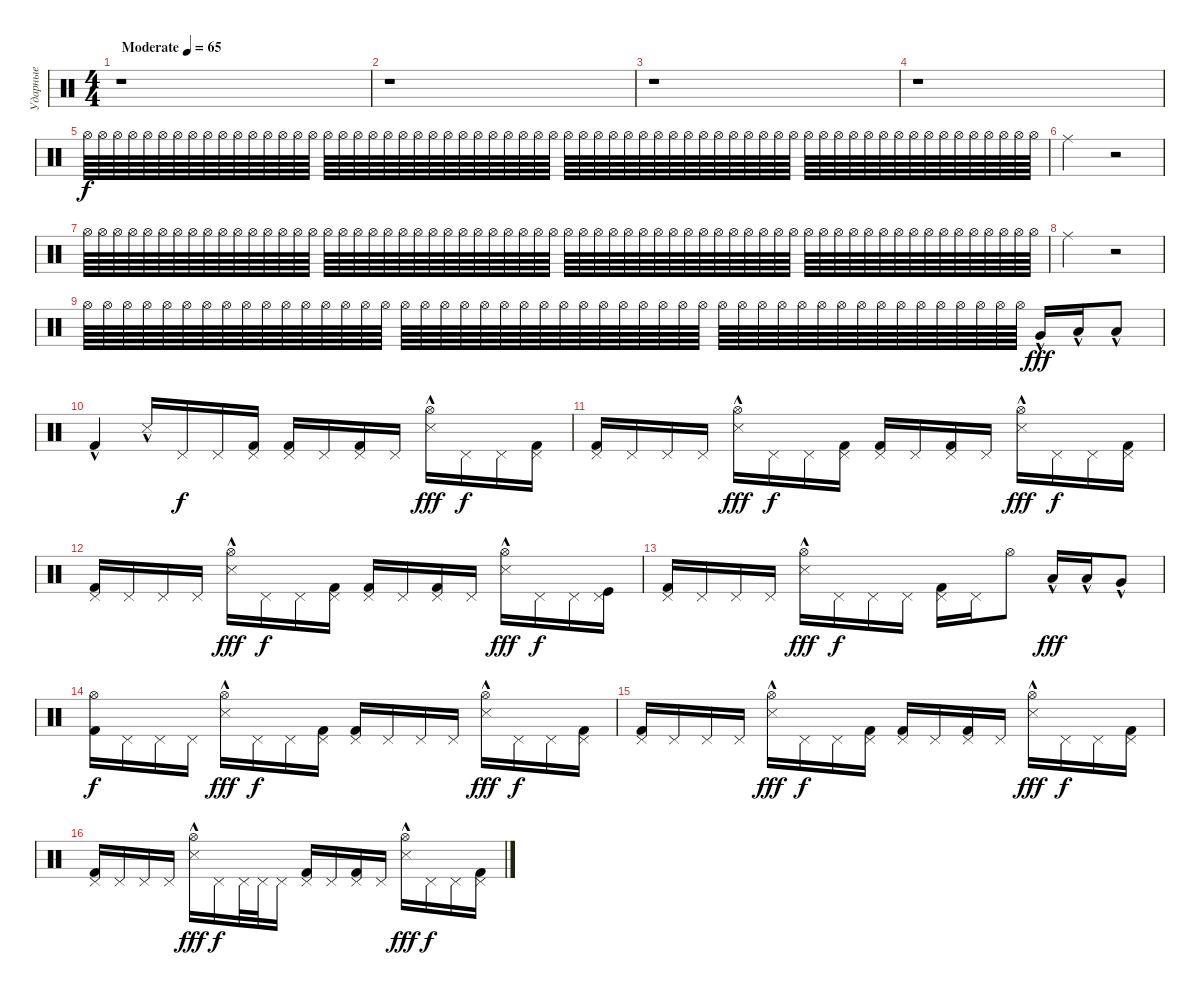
\track ("Ударные" "Ударные") {instrument percussion}
\staff {score}
\articulation defaults
\ts (4 4)
\tempo (65 "Moderate")
\clef neutral
\ks c
r.1{dy f volume 4} |
r.1 |
r.1 |
r.1 |
"Hi-Hat (open)".64{volume 10} "Hi-Hat (open)".64 "Hi-Hat (open)".64 "Hi-Hat (open)".64 "Hi-Hat (open)".64 "Hi-Hat (open)".64 "Hi-Hat (open)".64 "Hi-Hat (open)".64 "Hi-Hat (open)".64 "Hi-Hat (open)".64 "Hi-Hat (open)".64 "Hi-Hat (open)".64 "Hi-Hat (open)".64 "Hi-Hat (open)".64 "Hi-Hat (open)".64 "Hi-Hat (open)".64 "Hi-Hat (open)".64 "Hi-Hat (open)".64 "Hi-Hat (open)".64 "Hi-Hat (open)".64 "Hi-Hat (open)".64 "Hi-Hat (open)".64 "Hi-Hat (open)".64 "Hi-Hat (open)".64 "Hi-Hat (open)".64 "Hi-Hat (open)".64 "Hi-Hat (open)".64 "Hi-Hat (open)".64 "Hi-Hat (open)".64 "Hi-Hat (open)".64 "Hi-Hat (open)".64 "Hi-Hat (open)".64 "Hi-Hat (open)".64{volume 5} "Hi-Hat (open)".64 "Hi-Hat (open)".64 "Hi-Hat (open)".64 "Hi-Hat (open)".64 "Hi-Hat (open)".64 "Hi-Hat (open)".64 "Hi-Hat (open)".64 "Hi-Hat (open)".64 "Hi-Hat (open)".64 "Hi-Hat (open)".64 "Hi-Hat (open)".64 "Hi-Hat (open)".64 "Hi-Hat (open)".64 "Hi-Hat (open)".64 "Hi-Hat (open)".64 "Hi-Hat (open)".64 "Hi-Hat (open)".64 "Hi-Hat (open)".64 "Hi-Hat (open)".64 "Hi-Hat (open)".64 "Hi-Hat (open)".64 "Hi-Hat (open)".64 "Hi-Hat (open)".64 "Hi-Hat (open)".64 "Hi-Hat (open)".64 "Hi-Hat (open)".64 "Hi-Hat (open)".64 "Hi-Hat (open)".64 "Hi-Hat (open)".64 "Hi-Hat (open)".64 "Hi-Hat (open)".64 |
"Ride (middle)".2{volume 11} r.2{volume 0} |
"Hi-Hat (open)".64{volume 10} "Hi-Hat (open)".64 "Hi-Hat (open)".64 "Hi-Hat (open)".64 "Hi-Hat (open)".64 "Hi-Hat (open)".64 "Hi-Hat (open)".64 "Hi-Hat (open)".64 "Hi-Hat (open)".64 "Hi-Hat (open)".64 "Hi-Hat (open)".64 "Hi-Hat (open)".64 "Hi-Hat (open)".64 "Hi-Hat (open)".64 "Hi-Hat (open)".64 "Hi-Hat (open)".64 "Hi-Hat (open)".64 "Hi-Hat (open)".64 "Hi-Hat (open)".64 "Hi-Hat (open)".64 "Hi-Hat (open)".64 "Hi-Hat (open)".64 "Hi-Hat (open)".64 "Hi-Hat (open)".64 "Hi-Hat (open)".64 "Hi-Hat (open)".64 "Hi-Hat (open)".64 "Hi-Hat (open)".64 "Hi-Hat (open)".64 "Hi-Hat (open)".64 "Hi-Hat (open)".64 "Hi-Hat (open)".64 "Hi-Hat (open)".64{volume 5} "Hi-Hat (open)".64 "Hi-Hat (open)".64 "Hi-Hat (open)".64 "Hi-Hat (open)".64 "Hi-Hat (open)".64 "Hi-Hat (open)".64 "Hi-Hat (open)".64 "Hi-Hat (open)".64 "Hi-Hat (open)".64 "Hi-Hat (open)".64 "Hi-Hat (open)".64 "Hi-Hat (open)".64 "Hi-Hat (open)".64 "Hi-Hat (open)".64 "Hi-Hat (open)".64 "Hi-Hat (open)".64 "Hi-Hat (open)".64 "Hi-Hat (open)".64 "Hi-Hat (open)".64 "Hi-Hat (open)".64 "Hi-Hat (open)".64 "Hi-Hat (open)".64 "Hi-Hat (open)".64 "Hi-Hat (open)".64 "Hi-Hat (open)".64 "Hi-Hat (open)".64 "Hi-Hat (open)".64 "Hi-Hat (open)".64 "Hi-Hat (open)".64 "Hi-Hat (open)".64 "Hi-Hat (open)".64 |
"Ride (middle)".2{volume 11} r.2{volume 0} |
"Hi-Hat (open)".64{volume 11} "Hi-Hat (open)".64 "Hi-Hat (open)".64 "Hi-Hat (open)".64 "Hi-Hat (open)".64 "Hi-Hat (open)".64 "Hi-Hat (open)".64 "Hi-Hat (open)".64 "Hi-Hat (open)".64 "Hi-Hat (open)".64 "Hi-Hat (open)".64 "Hi-Hat (open)".64 "Hi-Hat (open)".64 "Hi-Hat (open)".64 "Hi-Hat (open)".64 "Hi-Hat (open)".64 "Hi-Hat (open)".64 "Hi-Hat (open)".64 "Hi-Hat (open)".64 "Hi-Hat (open)".64 "Hi-Hat (open)".64 "Hi-Hat (open)".64 "Hi-Hat (open)".64 "Hi-Hat (open)".64 "Hi-Hat (open)".64 "Hi-Hat (open)".64 "Hi-Hat (open)".64 "Hi-Hat (open)".64 "Hi-Hat (open)".64 "Hi-Hat (open)".64 "Hi-Hat (open)".64 "Hi-Hat (open)".64 "Hi-Hat (open)".64 "Hi-Hat (open)".64 "Hi-Hat (open)".64 "Hi-Hat (open)".64 "Hi-Hat (open)".64 "Hi-Hat (open)".64 "Hi-Hat (open)".64 "Hi-Hat (open)".64 "Hi-Hat (open)".64 "Hi-Hat (open)".64 "Hi-Hat (open)".64 "Hi-Hat (open)".64 "Hi-Hat (open)".64 "Hi-Hat (open)".64 "Hi-Hat (open)".64 "Hi-Hat (open)".64 "Very Low Tom (hit)"{hac}.16{dy fff} "Low Floor Tom (hit)"{hac}.16 "Low Floor Tom (hit)"{hac}.8 |
"Kick (hit) 2"{hac}.4 "Snare (side stick) 3"{hac}.16 "Pedal Hi-Hat (hit)".16{dy f} "Pedal Hi-Hat (hit)".16 ("Kick (hit) 2" "Pedal Hi-Hat (hit)").16 ("Kick (hit) 2" "Pedal Hi-Hat (hit)").16 "Pedal Hi-Hat (hit)".16 ("Kick (hit) 2" "Pedal Hi-Hat (hit)").16 "Pedal Hi-Hat (hit)".16 ("Snare (side stick) 3"{hac} "Hi-Hat (open)").16{dy fff} "Pedal Hi-Hat (hit)".16{dy f} "Pedal Hi-Hat (hit)".16 ("Kick (hit) 2" "Pedal Hi-Hat (hit)").16 |
("Kick (hit) 2" "Pedal Hi-Hat (hit)").16 "Pedal Hi-Hat (hit)".16 "Pedal Hi-Hat (hit)".16 "Pedal Hi-Hat (hit)".16 ("Snare (side stick) 3"{hac} "Hi-Hat (open)").16{dy fff} "Pedal Hi-Hat (hit)".16{dy f} "Pedal Hi-Hat (hit)".16 ("Kick (hit) 2" "Pedal Hi-Hat (hit)").16 ("Kick (hit) 2" "Pedal Hi-Hat (hit)").16 "Pedal Hi-Hat (hit)".16 ("Kick (hit) 2" "Pedal Hi-Hat (hit)").16 "Pedal Hi-Hat (hit)".16 ("Snare (side stick) 3"{hac} "Hi-Hat (open)").16{dy fff} "Pedal Hi-Hat (hit)".16{dy f} "Pedal Hi-Hat (hit)".16 ("Kick (hit) 2" "Pedal Hi-Hat (hit)").16 |
("Kick (hit) 2" "Pedal Hi-Hat (hit)").16 "Pedal Hi-Hat (hit)".16 "Pedal Hi-Hat (hit)".16 "Pedal Hi-Hat (hit)".16 ("Snare (side stick) 3"{hac} "Hi-Hat (open)").16{dy fff} "Pedal Hi-Hat (hit)".16{dy f} "Pedal Hi-Hat (hit)".16 ("Kick (hit) 2" "Pedal Hi-Hat (hit)").16 ("Kick (hit) 2" "Pedal Hi-Hat (hit)").16 "Pedal Hi-Hat (hit)".16 ("Kick (hit) 2" "Pedal Hi-Hat (hit)").16 "Pedal Hi-Hat (hit)".16 ("Snare (side stick) 3"{hac} "Hi-Hat (open)").16{dy fff} "Pedal Hi-Hat (hit)".16{dy f} "Pedal Hi-Hat (hit)".16 ("Kick (hit)" "Pedal Hi-Hat (hit)").16 |
("Kick (hit) 2" "Pedal Hi-Hat (hit)").16 "Pedal Hi-Hat (hit)".16 "Pedal Hi-Hat (hit)".16 "Pedal Hi-Hat (hit)".16 ("Snare (side stick) 3"{hac} "Hi-Hat (open)").16{dy fff} "Pedal Hi-Hat (hit)".16{dy f} "Pedal Hi-Hat (hit)".16 "Pedal Hi-Hat (hit)".16 ("Kick (hit) 2" "Pedal Hi-Hat (hit)").16 "Pedal Hi-Hat (hit)".16 "Hi-Hat (open)".8 "Low Tom (hit)"{hac}.16{dy fff} "Low Tom (hit)"{hac}.16 "Very Low Tom (hit)"{hac}.8 |
("Kick (hit) 2" "Hi-Hat (open)").16{dy f} "Pedal Hi-Hat (hit)".16 "Pedal Hi-Hat (hit)".16 "Pedal Hi-Hat (hit)".16 ("Snare (side stick) 3"{hac} "Hi-Hat (open)").16{dy fff} "Pedal Hi-Hat (hit)".16{dy f} "Pedal Hi-Hat (hit)".16 ("Kick (hit) 2" "Pedal Hi-Hat (hit)").16 ("Kick (hit) 2" "Pedal Hi-Hat (hit)").16 "Pedal Hi-Hat (hit)".16 "Pedal Hi-Hat (hit)".16 "Pedal Hi-Hat (hit)".16 ("Snare (side stick) 3"{hac} "Hi-Hat (open)").16{dy fff} "Pedal Hi-Hat (hit)".16{dy f} "Pedal Hi-Hat (hit)".16 ("Kick (hit) 2" "Pedal Hi-Hat (hit)").16 |
("Kick (hit) 2" "Pedal Hi-Hat (hit)").16 "Pedal Hi-Hat (hit)".16 "Pedal Hi-Hat (hit)".16 "Pedal Hi-Hat (hit)".16 ("Snare (side stick) 3"{hac} "Hi-Hat (open)").16{dy fff} "Pedal Hi-Hat (hit)".16{dy f} "Pedal Hi-Hat (hit)".16 ("Kick (hit) 2" "Pedal Hi-Hat (hit)").16 ("Kick (hit) 2" "Pedal Hi-Hat (hit)").16 "Pedal Hi-Hat (hit)".16 ("Kick (hit) 2" "Pedal Hi-Hat (hit)").16 "Pedal Hi-Hat (hit)".16 ("Snare (side stick) 3"{hac} "Hi-Hat (open)").16{dy fff} "Pedal Hi-Hat (hit)".16{dy f} "Pedal Hi-Hat (hit)".16 ("Kick (hit) 2" "Pedal Hi-Hat (hit)").16 |
("Kick (hit) 2" "Pedal Hi-Hat (hit)").16 "Pedal Hi-Hat (hit)".16 "Pedal Hi-Hat (hit)".16 "Pedal Hi-Hat (hit)".16 ("Snare (side stick) 3"{hac} "Hi-Hat (open)").16{dy fff} "Pedal Hi-Hat (hit)".16{dy f} "Pedal Hi-Hat (hit)".32 "Pedal Hi-Hat (hit)".32 "Pedal Hi-Hat (hit)".16 ("Kick (hit) 2" "Pedal Hi-Hat (hit)").16 "Pedal Hi-Hat (hit)".16 ("Kick (hit) 2" "Pedal Hi-Hat (hit)").16 "Pedal Hi-Hat (hit)".16 ("Snare (side stick) 3"{hac} "Hi-Hat (open)").16{dy fff} "Pedal Hi-Hat (hit)".16{dy f} "Pedal Hi-Hat (hit)".16 ("Kick (hit) 2" "Pedal Hi-Hat (hit)").16
